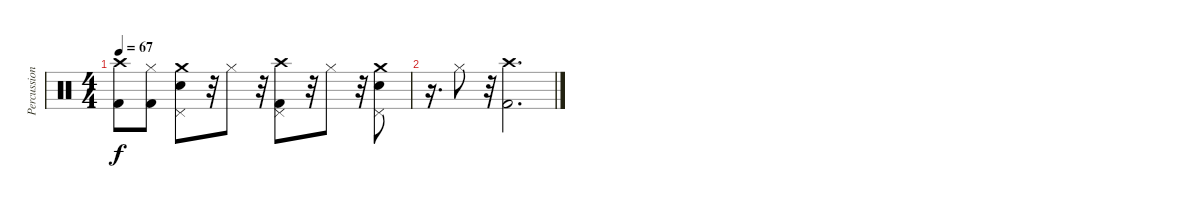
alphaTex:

\track ("Percussion" "Percussion") {instrument percussion}
\staff {score}
\articulation defaults
\ts (4 4)
\tempo 67
\clef neutral
\ks c
("Crash high (hit)" "Kick (hit) 2").8{dy f} ("Hi-Hat (closed)" "Kick (hit) 2").8 ("Crash medium (hit)" "Pedal Hi-Hat (hit)" "Electric Snare (hit)").8 r.32 "Hi-Hat (closed)".8 r.32 ("Crash high (hit)" "Pedal Hi-Hat (hit)" "Kick (hit) 2").8 r.32 "Hi-Hat (closed)".8 r.32 ("Crash medium (hit)" "Pedal Hi-Hat (hit)" "Electric Snare (hit)").8 |
r.16{d} "Hi-Hat (closed)".8 r.32 ("Crash high (hit)" "Kick (hit) 2").2{d}
